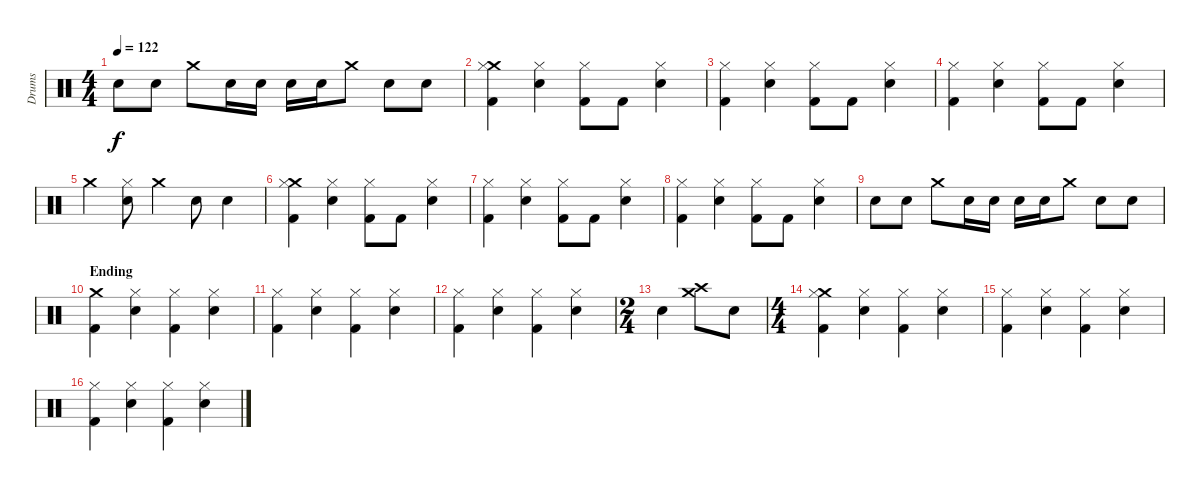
\track ("Drums" "Drums") {instrument percussion}
\staff {score}
\articulation defaults
\ts (4 4)
\tempo 122
\clef neutral
\ks aminor "Electric Snare (hit)".8{dy f} "Electric Snare (hit)".8 "Crash medium (hit)".8 "Electric Snare (hit)".16 "Electric Snare (hit)".16 "Electric Snare (hit)".16 "Electric Snare (hit)".16 "Crash medium (hit)".8 "Electric Snare (hit)".8 "Electric Snare (hit)".8
|
("Crash medium (hit)" "Hi-Hat (closed)" "Kick (hit) 2").4 ("Hi-Hat (closed)" "Snare (hit) 2").4 ("Hi-Hat (closed)" "Kick (hit) 2").8 "Kick (hit) 2".8 ("Hi-Hat (closed)" "Snare (hit) 2").4 |
("Hi-Hat (closed)" "Kick (hit) 2").4 ("Hi-Hat (closed)" "Snare (hit) 2").4 ("Hi-Hat (closed)" "Kick (hit) 2").8 "Kick (hit) 2".8 ("Hi-Hat (closed)" "Snare (hit) 2").4 |
("Hi-Hat (closed)" "Kick (hit) 2").4 ("Hi-Hat (closed)" "Snare (hit) 2").4 ("Hi-Hat (closed)" "Kick (hit) 2").8 "Kick (hit) 2".8 ("Hi-Hat (closed)" "Snare (hit) 2").4 |
"Crash medium (hit)".4 ("Hi-Hat (closed)" "Snare (hit) 2").8 "Crash medium (hit)".4 "Electric Snare (hit)".8 "Electric Snare (hit)".4 |
("Crash medium (hit)" "Hi-Hat (closed)" "Kick (hit) 2").4 ("Hi-Hat (closed)" "Snare (hit) 2").4 ("Hi-Hat (closed)" "Kick (hit) 2").8 "Kick (hit) 2".8 ("Hi-Hat (closed)" "Snare (hit) 2").4 |
("Hi-Hat (closed)" "Kick (hit) 2").4 ("Hi-Hat (closed)" "Snare (hit) 2").4 ("Hi-Hat (closed)" "Kick (hit) 2").8 "Kick (hit) 2".8 ("Hi-Hat (closed)" "Snare (hit) 2").4 |
("Hi-Hat (closed)" "Kick (hit) 2").4 ("Hi-Hat (closed)" "Snare (hit) 2").4 ("Hi-Hat (closed)" "Kick (hit) 2").8 "Kick (hit) 2".8 ("Hi-Hat (closed)" "Snare (hit) 2").4 |
"Electric Snare (hit)".8 "Electric Snare (hit)".8 "Crash medium (hit)".8 "Electric Snare (hit)".16 "Electric Snare (hit)".16 "Electric Snare (hit)".16 "Electric Snare (hit)".16 "Crash medium (hit)".8 "Electric Snare (hit)".8 "Electric Snare (hit)".8 |
\section ("" "Ending")
("Crash medium (hit)" "Kick (hit) 2").4 ("Hi-Hat (closed)" "Snare (hit) 2").4 ("Hi-Hat (closed)" "Kick (hit) 2").4 ("Hi-Hat (closed)" "Snare (hit) 2").4 |
("Hi-Hat (closed)" "Kick (hit) 2").4 ("Hi-Hat (closed)" "Snare (hit) 2").4 ("Hi-Hat (closed)" "Kick (hit) 2").4 ("Hi-Hat (closed)" "Snare (hit) 2").4 |
("Hi-Hat (closed)" "Kick (hit) 2").4 ("Hi-Hat (closed)" "Snare (hit) 2").4 ("Hi-Hat (closed)" "Kick (hit) 2").4 ("Hi-Hat (closed)" "Snare (hit) 2").4 |
\ts (2 4)
"Electric Snare (hit)".4 ("Crash medium (hit)" "Crash high (hit)").8 "Electric Snare (hit)".8 |
\ts (4 4)
("Crash medium (hit)" "Hi-Hat (closed)" "Kick (hit) 2").4 ("Hi-Hat (closed)" "Snare (hit) 2").4 ("Hi-Hat (closed)" "Kick (hit) 2").4 ("Hi-Hat (closed)" "Snare (hit) 2").4 |
("Hi-Hat (closed)" "Kick (hit) 2").4 ("Hi-Hat (closed)" "Snare (hit) 2").4 ("Hi-Hat (closed)" "Kick (hit) 2").4 ("Hi-Hat (closed)" "Snare (hit) 2").4 |
("Hi-Hat (closed)" "Kick (hit) 2").4 ("Hi-Hat (closed)" "Snare (hit) 2").4 ("Hi-Hat (closed)" "Kick (hit) 2").4 ("Hi-Hat (closed)" "Snare (hit) 2").4
